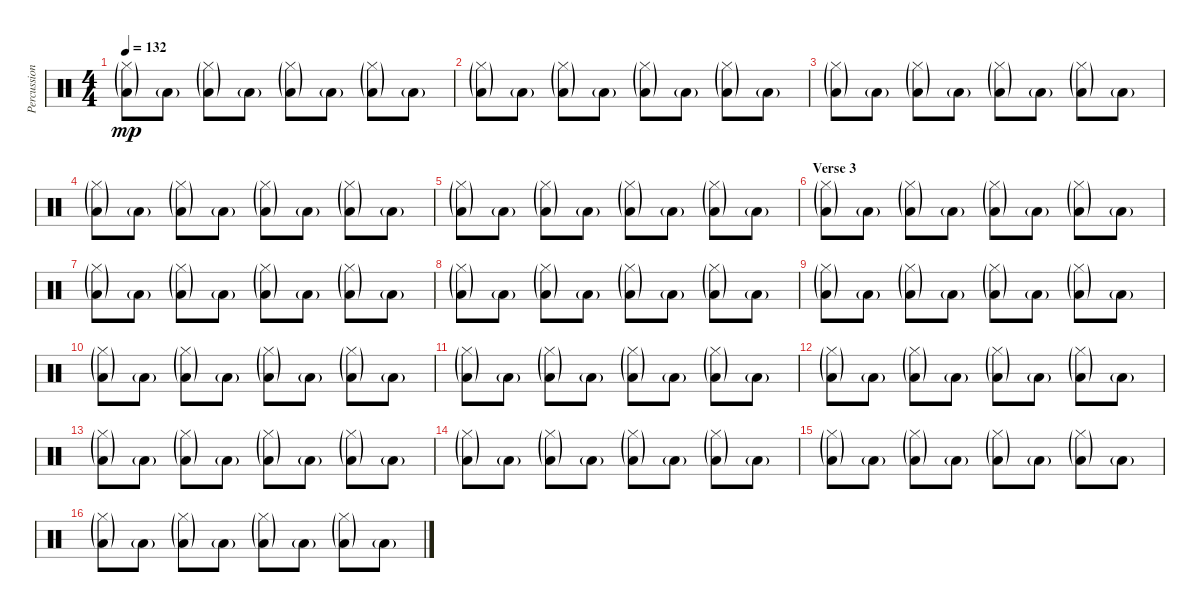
\track ("Percussions" "Percussion") {instrument percussion}
\staff {score}
\articulation defaults
\ts (4 4)
\tempo 132
\clef neutral
\ks c
("Hi-Hat (closed)"{g} "Low Floor Tom (hit)"{g}).8{dy mp} "Low Floor Tom (hit)"{g}.8 ("Hi-Hat (closed)"{g} "Low Floor Tom (hit)"{g}).8 "Low Floor Tom (hit)"{g}.8 ("Hi-Hat (closed)"{g} "Low Floor Tom (hit)"{g}).8 "Low Floor Tom (hit)"{g}.8 ("Hi-Hat (closed)"{g} "Low Floor Tom (hit)"{g}).8 "Low Floor Tom (hit)"{g}.8 |
("Hi-Hat (closed)"{g} "Low Floor Tom (hit)"{g}).8 "Low Floor Tom (hit)"{g}.8 ("Hi-Hat (closed)"{g} "Low Floor Tom (hit)"{g}).8 "Low Floor Tom (hit)"{g}.8 ("Hi-Hat (closed)"{g} "Low Floor Tom (hit)"{g}).8 "Low Floor Tom (hit)"{g}.8 ("Hi-Hat (closed)"{g} "Low Floor Tom (hit)"{g}).8 "Low Floor Tom (hit)"{g}.8 |
("Hi-Hat (closed)"{g} "Low Floor Tom (hit)"{g}).8 "Low Floor Tom (hit)"{g}.8 ("Hi-Hat (closed)"{g} "Low Floor Tom (hit)"{g}).8 "Low Floor Tom (hit)"{g}.8 ("Hi-Hat (closed)"{g} "Low Floor Tom (hit)"{g}).8 "Low Floor Tom (hit)"{g}.8 ("Hi-Hat (closed)"{g} "Low Floor Tom (hit)"{g}).8 "Low Floor Tom (hit)"{g}.8 |
("Hi-Hat (closed)"{g} "Low Floor Tom (hit)"{g}).8 "Low Floor Tom (hit)"{g}.8 ("Hi-Hat (closed)"{g} "Low Floor Tom (hit)"{g}).8 "Low Floor Tom (hit)"{g}.8 ("Hi-Hat (closed)"{g} "Low Floor Tom (hit)"{g}).8 "Low Floor Tom (hit)"{g}.8 ("Hi-Hat (closed)"{g} "Low Floor Tom (hit)"{g}).8 "Low Floor Tom (hit)"{g}.8 |
("Hi-Hat (closed)"{g} "Low Floor Tom (hit)"{g}).8 "Low Floor Tom (hit)"{g}.8 ("Hi-Hat (closed)"{g} "Low Floor Tom (hit)"{g}).8 "Low Floor Tom (hit)"{g}.8 ("Hi-Hat (closed)"{g} "Low Floor Tom (hit)"{g}).8 "Low Floor Tom (hit)"{g}.8 ("Hi-Hat (closed)"{g} "Low Floor Tom (hit)"{g}).8 "Low Floor Tom (hit)"{g}.8 |
\section ("" "Verse 3")
("Hi-Hat (closed)"{g} "Low Floor Tom (hit)"{g}).8 "Low Floor Tom (hit)"{g}.8 ("Hi-Hat (closed)"{g} "Low Floor Tom (hit)"{g}).8 "Low Floor Tom (hit)"{g}.8 ("Hi-Hat (closed)"{g} "Low Floor Tom (hit)"{g}).8 "Low Floor Tom (hit)"{g}.8 ("Hi-Hat (closed)"{g} "Low Floor Tom (hit)"{g}).8 "Low Floor Tom (hit)"{g}.8 |
("Hi-Hat (closed)"{g} "Low Floor Tom (hit)"{g}).8 "Low Floor Tom (hit)"{g}.8 ("Hi-Hat (closed)"{g} "Low Floor Tom (hit)"{g}).8 "Low Floor Tom (hit)"{g}.8 ("Hi-Hat (closed)"{g} "Low Floor Tom (hit)"{g}).8 "Low Floor Tom (hit)"{g}.8 ("Hi-Hat (closed)"{g} "Low Floor Tom (hit)"{g}).8 "Low Floor Tom (hit)"{g}.8 |
("Hi-Hat (closed)"{g} "Low Floor Tom (hit)"{g}).8 "Low Floor Tom (hit)"{g}.8 ("Hi-Hat (closed)"{g} "Low Floor Tom (hit)"{g}).8 "Low Floor Tom (hit)"{g}.8 ("Hi-Hat (closed)"{g} "Low Floor Tom (hit)"{g}).8 "Low Floor Tom (hit)"{g}.8 ("Hi-Hat (closed)"{g} "Low Floor Tom (hit)"{g}).8 "Low Floor Tom (hit)"{g}.8 |
("Hi-Hat (closed)"{g} "Low Floor Tom (hit)"{g}).8 "Low Floor Tom (hit)"{g}.8 ("Hi-Hat (closed)"{g} "Low Floor Tom (hit)"{g}).8 "Low Floor Tom (hit)"{g}.8 ("Hi-Hat (closed)"{g} "Low Floor Tom (hit)"{g}).8 "Low Floor Tom (hit)"{g}.8 ("Hi-Hat (closed)"{g} "Low Floor Tom (hit)"{g}).8 "Low Floor Tom (hit)"{g}.8 |
("Hi-Hat (closed)"{g} "Low Floor Tom (hit)"{g}).8 "Low Floor Tom (hit)"{g}.8 ("Hi-Hat (closed)"{g} "Low Floor Tom (hit)"{g}).8 "Low Floor Tom (hit)"{g}.8 ("Hi-Hat (closed)"{g} "Low Floor Tom (hit)"{g}).8 "Low Floor Tom (hit)"{g}.8 ("Hi-Hat (closed)"{g} "Low Floor Tom (hit)"{g}).8 "Low Floor Tom (hit)"{g}.8 |
("Hi-Hat (closed)"{g} "Low Floor Tom (hit)"{g}).8 "Low Floor Tom (hit)"{g}.8 ("Hi-Hat (closed)"{g} "Low Floor Tom (hit)"{g}).8 "Low Floor Tom (hit)"{g}.8 ("Hi-Hat (closed)"{g} "Low Floor Tom (hit)"{g}).8 "Low Floor Tom (hit)"{g}.8 ("Hi-Hat (closed)"{g} "Low Floor Tom (hit)"{g}).8 "Low Floor Tom (hit)"{g}.8 |
("Hi-Hat (closed)"{g} "Low Floor Tom (hit)"{g}).8 "Low Floor Tom (hit)"{g}.8 ("Hi-Hat (closed)"{g} "Low Floor Tom (hit)"{g}).8 "Low Floor Tom (hit)"{g}.8 ("Hi-Hat (closed)"{g} "Low Floor Tom (hit)"{g}).8 "Low Floor Tom (hit)"{g}.8 ("Hi-Hat (closed)"{g} "Low Floor Tom (hit)"{g}).8 "Low Floor Tom (hit)"{g}.8 |
("Hi-Hat (closed)"{g} "Low Floor Tom (hit)"{g}).8 "Low Floor Tom (hit)"{g}.8 ("Hi-Hat (closed)"{g} "Low Floor Tom (hit)"{g}).8 "Low Floor Tom (hit)"{g}.8 ("Hi-Hat (closed)"{g} "Low Floor Tom (hit)"{g}).8 "Low Floor Tom (hit)"{g}.8 ("Hi-Hat (closed)"{g} "Low Floor Tom (hit)"{g}).8 "Low Floor Tom (hit)"{g}.8 |
("Hi-Hat (closed)"{g} "Low Floor Tom (hit)"{g}).8 "Low Floor Tom (hit)"{g}.8 ("Hi-Hat (closed)"{g} "Low Floor Tom (hit)"{g}).8 "Low Floor Tom (hit)"{g}.8 ("Hi-Hat (closed)"{g} "Low Floor Tom (hit)"{g}).8 "Low Floor Tom (hit)"{g}.8 ("Hi-Hat (closed)"{g} "Low Floor Tom (hit)"{g}).8 "Low Floor Tom (hit)"{g}.8 |
("Hi-Hat (closed)"{g} "Low Floor Tom (hit)"{g}).8 "Low Floor Tom (hit)"{g}.8 ("Hi-Hat (closed)"{g} "Low Floor Tom (hit)"{g}).8 "Low Floor Tom (hit)"{g}.8 ("Hi-Hat (closed)"{g} "Low Floor Tom (hit)"{g}).8 "Low Floor Tom (hit)"{g}.8 ("Hi-Hat (closed)"{g} "Low Floor Tom (hit)"{g}).8 "Low Floor Tom (hit)"{g}.8 |
("Hi-Hat (closed)"{g} "Low Floor Tom (hit)"{g}).8 "Low Floor Tom (hit)"{g}.8 ("Hi-Hat (closed)"{g} "Low Floor Tom (hit)"{g}).8 "Low Floor Tom (hit)"{g}.8 ("Hi-Hat (closed)"{g} "Low Floor Tom (hit)"{g}).8 "Low Floor Tom (hit)"{g}.8 ("Hi-Hat (closed)"{g} "Low Floor Tom (hit)"{g}).8 "Low Floor Tom (hit)"{g}.8
